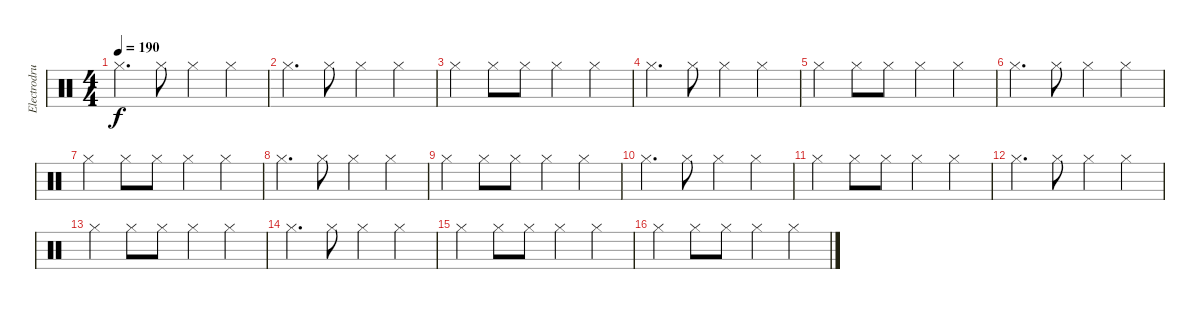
\track ("Electrodrums1" "Electrodru") {instrument percussion}
\staff {score}
\articulation defaults
\ts (4 4)
\tempo 190
\clef neutral
\ks c "Hi-Hat (closed)".4{d dy f} "Hi-Hat (closed)".8 "Hi-Hat (closed)".4 "Hi-Hat (closed)".4
|
"Hi-Hat (closed)".4{d} "Hi-Hat (closed)".8 "Hi-Hat (closed)".4 "Hi-Hat (closed)".4 |
"Hi-Hat (closed)".4 "Hi-Hat (closed)".8 "Hi-Hat (closed)".8 "Hi-Hat (closed)".4 "Hi-Hat (closed)".4 |
"Hi-Hat (closed)".4{d} "Hi-Hat (closed)".8 "Hi-Hat (closed)".4 "Hi-Hat (closed)".4 |
"Hi-Hat (closed)".4 "Hi-Hat (closed)".8 "Hi-Hat (closed)".8 "Hi-Hat (closed)".4 "Hi-Hat (closed)".4 |
"Hi-Hat (closed)".4{d} "Hi-Hat (closed)".8 "Hi-Hat (closed)".4 "Hi-Hat (closed)".4 |
"Hi-Hat (closed)".4 "Hi-Hat (closed)".8 "Hi-Hat (closed)".8 "Hi-Hat (closed)".4 "Hi-Hat (closed)".4 |
"Hi-Hat (closed)".4{d} "Hi-Hat (closed)".8 "Hi-Hat (closed)".4 "Hi-Hat (closed)".4 |
"Hi-Hat (closed)".4 "Hi-Hat (closed)".8 "Hi-Hat (closed)".8 "Hi-Hat (closed)".4 "Hi-Hat (closed)".4 |
"Hi-Hat (closed)".4{d} "Hi-Hat (closed)".8 "Hi-Hat (closed)".4 "Hi-Hat (closed)".4 |
"Hi-Hat (closed)".4 "Hi-Hat (closed)".8 "Hi-Hat (closed)".8 "Hi-Hat (closed)".4 "Hi-Hat (closed)".4 |
"Hi-Hat (closed)".4{d} "Hi-Hat (closed)".8 "Hi-Hat (closed)".4 "Hi-Hat (closed)".4 |
"Hi-Hat (closed)".4 "Hi-Hat (closed)".8 "Hi-Hat (closed)".8 "Hi-Hat (closed)".4 "Hi-Hat (closed)".4 |
"Hi-Hat (closed)".4{d} "Hi-Hat (closed)".8 "Hi-Hat (closed)".4 "Hi-Hat (closed)".4 |
"Hi-Hat (closed)".4 "Hi-Hat (closed)".8 "Hi-Hat (closed)".8 "Hi-Hat (closed)".4 "Hi-Hat (closed)".4 |
"Hi-Hat (closed)".4 "Hi-Hat (closed)".8 "Hi-Hat (closed)".8 "Hi-Hat (closed)".4 "Hi-Hat (closed)".4
